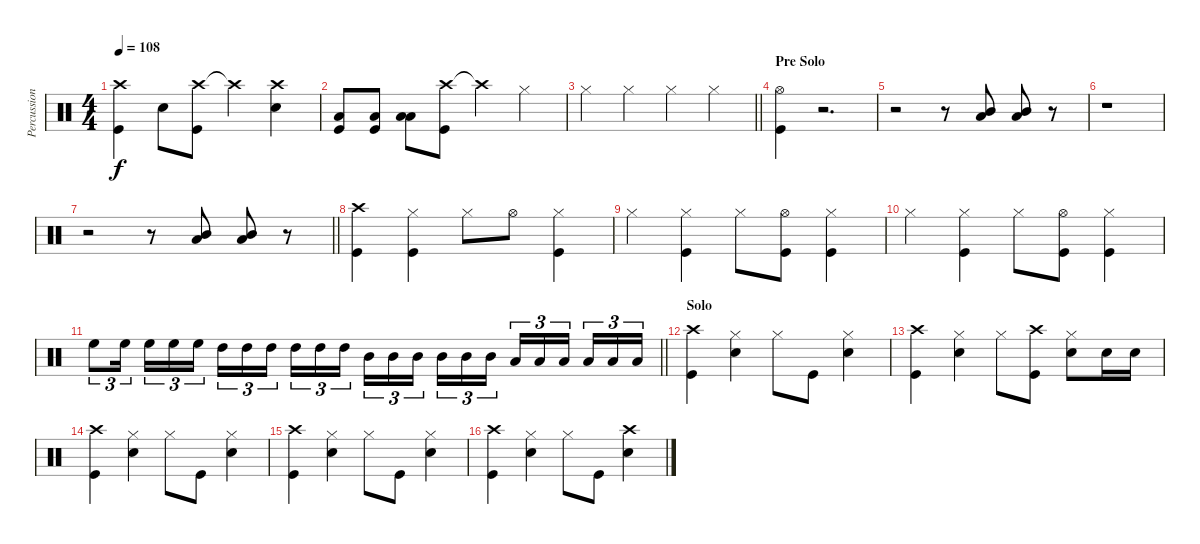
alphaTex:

\track ("Percussion" "Percussion") {instrument percussion}
\staff {score}
\articulation defaults
\ts (4 4)
\tempo 108
\clef neutral
\ks c
("Crash high (hit)" "Kick (hit)").4{dy f} "Snare (hit) 2".8 ("Crash high (hit)" "Kick (hit)").8 "Crash high (hit)"{t}.4 ("Crash high (hit)" "Snare (hit) 2").4 |
("Low Tom (hit)" "Kick (hit)").8 ("Low Tom (hit)" "Kick (hit)").8 ("Low Tom (hit)" "Low Floor Tom (hit)").8 ("Crash high (hit)" "Kick (hit)").8 "Crash high (hit)"{t}.4 "Hi-Hat (closed)".4 |
\barLineRight lightlight "Hi-Hat (closed)".4 "Hi-Hat (closed)".4 "Hi-Hat (closed)".4 "Hi-Hat (closed)".4
|
\section ("" "Pre Solo")
("Hi-Hat (open)" "Kick (hit)").4 r.2{d} |
r.2 r.8 ("Mid Tom (hit)" "Low Tom (hit)").8 ("Mid Tom (hit)" "Low Tom (hit)").8 r.8 |
r.1 |
\barLineRight lightlight
r.2 r.8 ("Mid Tom (hit)" "Low Tom (hit)").8 ("Mid Tom (hit)" "Low Tom (hit)").8 r.8 |
("Crash high (hit)" "Kick (hit)").4 ("Hi-Hat (closed)" "Kick (hit)").4 "Hi-Hat (closed)".8 "Hi-Hat (open)".8 ("Hi-Hat (closed)" "Kick (hit)").4 |
"Hi-Hat (closed)".4 ("Hi-Hat (closed)" "Kick (hit)").4 "Hi-Hat (closed)".8 ("Hi-Hat (open)" "Kick (hit)").8 ("Hi-Hat (closed)" "Kick (hit)").4 |
"Hi-Hat (closed)".4 ("Hi-Hat (closed)" "Kick (hit)").4 "Hi-Hat (closed)".8 ("Hi-Hat (open)" "Kick (hit)").8 ("Hi-Hat (closed)" "Kick (hit)").4 |
\barLineRight lightlight "High Floor Tom (hit)".8{tu (3 2)} "High Floor Tom (hit)".16{tu (3 2) beam splitsecondary} "High Floor Tom (hit)".16{tu (3 2)} "High Floor Tom (hit)".16{tu (3 2)} "High Floor Tom (hit)".16{tu (3 2)} "High Tom (hit)".16{tu (3 2)} "High Tom (hit)".16{tu (3 2)} "High Tom (hit)".16{tu (3 2) beam splitsecondary} "High Tom (hit)".16{tu (3 2)} "High Tom (hit)".16{tu (3 2)} "High Tom (hit)".16{tu (3 2)} "Mid Tom (hit)".16{tu (3 2)} "Mid Tom (hit)".16{tu (3 2)} "Mid Tom (hit)".16{tu (3 2) beam splitsecondary} "Mid Tom (hit)".16{tu (3 2)} "Mid Tom (hit)".16{tu (3 2)} "Mid Tom (hit)".16{tu (3 2)} "Low Tom (hit)".16{tu (3 2)} "Low Tom (hit)".16{tu (3 2)} "Low Tom (hit)".16{tu (3 2) beam splitsecondary} "Low Tom (hit)".16{tu (3 2)} "Low Tom (hit)".16{tu (3 2)} "Low Tom (hit)".16{tu (3 2)}
|
\section ("" "Solo")
("Crash high (hit)" "Kick (hit)").4 ("Hi-Hat (closed)" "Snare (hit) 2").4 "Hi-Hat (closed)".8 "Kick (hit)".8 ("Hi-Hat (closed)" "Snare (hit) 2").4 |
("Crash high (hit)" "Kick (hit)").4 ("Hi-Hat (closed)" "Snare (hit) 2").4 "Hi-Hat (closed)".8 ("Crash high (hit)" "Kick (hit)").8 ("Hi-Hat (closed)" "Snare (hit) 2").8 "Snare (hit) 2".16 "Snare (hit) 2".16 |
("Crash high (hit)" "Kick (hit)").4 ("Hi-Hat (closed)" "Snare (hit) 2").4 "Hi-Hat (closed)".8 "Kick (hit)".8 ("Hi-Hat (closed)" "Snare (hit) 2").4 |
("Crash high (hit)" "Kick (hit)").4 ("Hi-Hat (closed)" "Snare (hit) 2").4 "Hi-Hat (closed)".8 "Kick (hit)".8 ("Hi-Hat (closed)" "Snare (hit) 2").4 |
("Crash high (hit)" "Kick (hit)").4 ("Hi-Hat (closed)" "Snare (hit) 2").4 "Hi-Hat (closed)".8 "Kick (hit)".8 ("Crash high (hit)" "Snare (hit) 2").4
